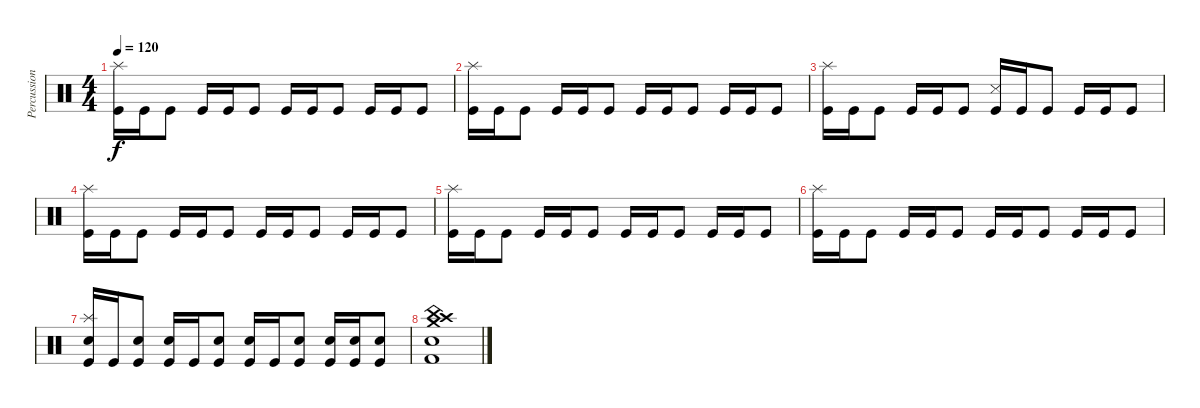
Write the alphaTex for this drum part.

\track ("Percussion" "Percussion") {instrument percussion}
\staff {score}
\articulation defaults
\ts (4 4)
\tempo 120
\clef neutral
\ks c
("Kick (hit)" "Splash (hit)").16{dy f} "Kick (hit)".16 "Kick (hit)".8 "Kick (hit)".16 "Kick (hit)".16 "Kick (hit)".8 "Kick (hit)".16 "Kick (hit)".16 "Kick (hit)".8 "Kick (hit)".16 "Kick (hit)".16 "Kick (hit)".8 |
("Kick (hit)" "Splash (hit)").16 "Kick (hit)".16 "Kick (hit)".8 "Kick (hit)".16 "Kick (hit)".16 "Kick (hit)".8 "Kick (hit)".16 "Kick (hit)".16 "Kick (hit)".8 "Kick (hit)".16 "Kick (hit)".16 "Kick (hit)".8 |
("Kick (hit)" "Splash (hit)").16 "Kick (hit)".16 "Kick (hit)".8 "Kick (hit)".16 "Kick (hit)".16 "Kick (hit)".8 ("Kick (hit)" "Snare (side stick) 3").16 "Kick (hit)".16 "Kick (hit)".8 "Kick (hit)".16 "Kick (hit)".16 "Kick (hit)".8 |
("Kick (hit)" "Splash (hit)").16 "Kick (hit)".16 "Kick (hit)".8 "Kick (hit)".16 "Kick (hit)".16 "Kick (hit)".8 "Kick (hit)".16 "Kick (hit)".16 "Kick (hit)".8 "Kick (hit)".16 "Kick (hit)".16 "Kick (hit)".8 |
("Kick (hit)" "Splash (hit)").16 "Kick (hit)".16 "Kick (hit)".8 "Kick (hit)".16 "Kick (hit)".16 "Kick (hit)".8 "Kick (hit)".16 "Kick (hit)".16 "Kick (hit)".8 "Kick (hit)".16 "Kick (hit)".16 "Kick (hit)".8 |
("Kick (hit)" "Splash (hit)").16 "Kick (hit)".16 "Kick (hit)".8 "Kick (hit)".16 "Kick (hit)".16 "Kick (hit)".8 "Kick (hit)".16 "Kick (hit)".16 "Kick (hit)".8 "Kick (hit)".16 "Kick (hit)".16 "Kick (hit)".8 |
("Kick (hit)" "Splash (hit)" "Snare (hit) 2").16 "Kick (hit)".16 ("Kick (hit)" "Snare (hit) 2").8 ("Kick (hit)" "Snare (hit) 2").16 "Kick (hit)".16 ("Kick (hit)" "Snare (hit) 2").8 ("Kick (hit)" "Snare (hit) 2").16 "Kick (hit)".16 ("Kick (hit)" "Snare (hit) 2").8 ("Kick (hit)" "Snare (hit) 2").16 ("Kick (hit)" "Snare (hit) 2").16 ("Kick (hit)" "Snare (hit) 2").8 |
("Snare (hit) 2" "Crash high (hit)" "Crash medium (hit)" "China (hit)" "Kick (hit) 2").1
